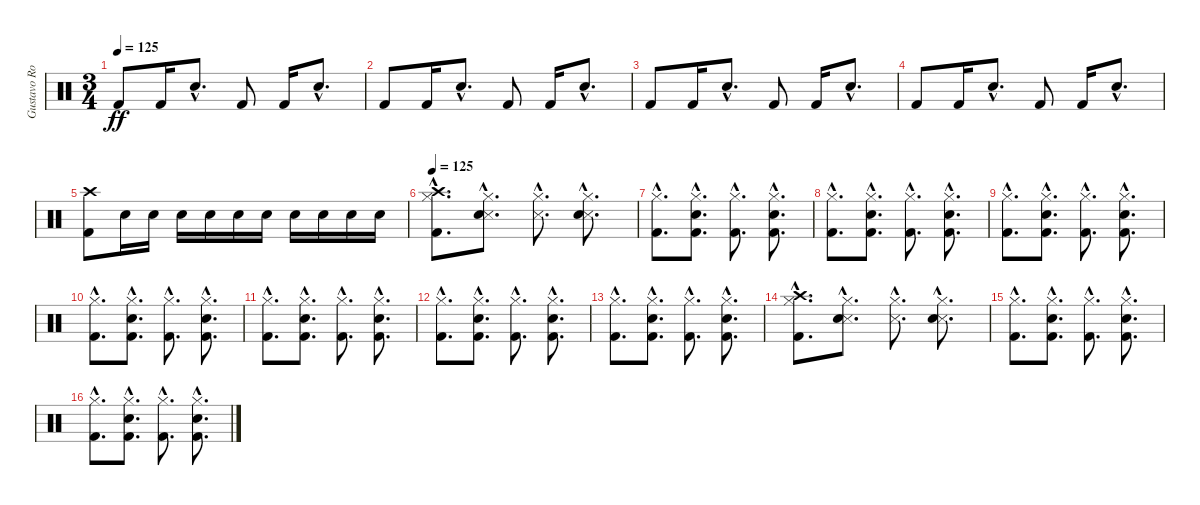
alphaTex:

\track ("Gustavo Rowek 2" "Gustavo Ro") {instrument percussion}
\staff {score}
\articulation defaults
\ts (3 4)
\tempo 125
\clef neutral
\ks c "Kick (hit) 2".8{dy ff} "Kick (hit) 2".16 "Snare (hit) 2"{hac}.8{d} "Kick (hit) 2".8 "Kick (hit) 2".16 "Snare (hit) 2"{hac}.8{d}
|
"Kick (hit) 2".8 "Kick (hit) 2".16 "Snare (hit) 2"{hac}.8{d} "Kick (hit) 2".8 "Kick (hit) 2".16 "Snare (hit) 2"{hac}.8{d} |
"Kick (hit) 2".8 "Kick (hit) 2".16 "Snare (hit) 2"{hac}.8{d} "Kick (hit) 2".8 "Kick (hit) 2".16 "Snare (hit) 2"{hac}.8{d} |
"Kick (hit) 2".8 "Kick (hit) 2".16 "Snare (hit) 2"{hac}.8{d} "Kick (hit) 2".8 "Kick (hit) 2".16 "Snare (hit) 2"{hac}.8{d} |
("Kick (hit) 2" "Crash high (hit)").8 "Electric Snare (hit)".16 "Electric Snare (hit)".16 "Electric Snare (hit)".16 "Electric Snare (hit)".16 "Electric Snare (hit)".16 "Electric Snare (hit)".16 "Electric Snare (hit)".16 "Electric Snare (hit)".16 "Electric Snare (hit)".16 "Electric Snare (hit)".16 |
\tempo 125
("Kick (hit) 2"{hac} "Hi-Hat (closed)"{hac} "Crash high (hit)"{hac}).8{d} ("Snare (side stick) 3"{hac} "Snare (hit) 2"{hac} "Hi-Hat (closed)"{hac}).8{d} ("Snare (side stick) 3"{hac} "Hi-Hat (closed)"{hac}).8{d} ("Snare (side stick) 3"{hac} "Snare (hit) 2"{hac} "Hi-Hat (closed)"{hac}).8{d} |
("Kick (hit) 2"{hac} "Hi-Hat (closed)"{hac}).8{d} ("Kick (hit) 2"{hac} "Snare (hit) 2"{hac} "Hi-Hat (closed)"{hac}).8{d} ("Kick (hit) 2"{hac} "Hi-Hat (closed)"{hac}).8{d} ("Kick (hit) 2"{hac} "Snare (hit) 2"{hac} "Hi-Hat (closed)"{hac}).8{d} |
("Kick (hit) 2"{hac} "Hi-Hat (closed)"{hac}).8{d} ("Kick (hit) 2"{hac} "Snare (hit) 2"{hac} "Hi-Hat (closed)"{hac}).8{d} ("Kick (hit) 2"{hac} "Hi-Hat (closed)"{hac}).8{d} ("Kick (hit) 2"{hac} "Snare (hit) 2"{hac} "Hi-Hat (closed)"{hac}).8{d} |
("Kick (hit) 2"{hac} "Hi-Hat (closed)"{hac}).8{d} ("Kick (hit) 2"{hac} "Snare (hit) 2"{hac} "Hi-Hat (closed)"{hac}).8{d} ("Kick (hit) 2"{hac} "Hi-Hat (closed)"{hac}).8{d} ("Kick (hit) 2"{hac} "Snare (hit) 2"{hac} "Hi-Hat (closed)"{hac}).8{d} |
("Kick (hit) 2"{hac} "Hi-Hat (closed)"{hac}).8{d} ("Kick (hit) 2"{hac} "Snare (hit) 2"{hac} "Hi-Hat (closed)"{hac}).8{d} ("Kick (hit) 2"{hac} "Hi-Hat (closed)"{hac}).8{d} ("Kick (hit) 2"{hac} "Snare (hit) 2"{hac} "Hi-Hat (closed)"{hac}).8{d} |
("Kick (hit) 2"{hac} "Hi-Hat (closed)"{hac}).8{d} ("Kick (hit) 2"{hac} "Snare (hit) 2"{hac} "Hi-Hat (closed)"{hac}).8{d} ("Kick (hit) 2"{hac} "Hi-Hat (closed)"{hac}).8{d} ("Kick (hit) 2"{hac} "Snare (hit) 2"{hac} "Hi-Hat (closed)"{hac}).8{d} |
("Kick (hit) 2"{hac} "Hi-Hat (closed)"{hac}).8{d} ("Kick (hit) 2"{hac} "Snare (hit) 2"{hac} "Hi-Hat (closed)"{hac}).8{d} ("Kick (hit) 2"{hac} "Hi-Hat (closed)"{hac}).8{d} ("Kick (hit) 2"{hac} "Snare (hit) 2"{hac} "Hi-Hat (closed)"{hac}).8{d} |
("Kick (hit) 2"{hac} "Hi-Hat (closed)"{hac}).8{d} ("Kick (hit) 2"{hac} "Snare (hit) 2"{hac} "Hi-Hat (closed)"{hac}).8{d} ("Kick (hit) 2"{hac} "Hi-Hat (closed)"{hac}).8{d} ("Kick (hit) 2"{hac} "Snare (hit) 2"{hac} "Hi-Hat (closed)"{hac}).8{d} |
("Kick (hit) 2"{hac} "Hi-Hat (closed)"{hac} "Crash high (hit)"{hac}).8{d} ("Snare (side stick) 3"{hac} "Snare (hit) 2"{hac} "Hi-Hat (closed)"{hac}).8{d} ("Snare (side stick) 3"{hac} "Hi-Hat (closed)"{hac}).8{d} ("Snare (side stick) 3"{hac} "Snare (hit) 2"{hac} "Hi-Hat (closed)"{hac}).8{d} |
("Kick (hit) 2"{hac} "Hi-Hat (closed)"{hac}).8{d} ("Kick (hit) 2"{hac} "Snare (hit) 2"{hac} "Hi-Hat (closed)"{hac}).8{d} ("Kick (hit) 2"{hac} "Hi-Hat (closed)"{hac}).8{d} ("Kick (hit) 2"{hac} "Snare (hit) 2"{hac} "Hi-Hat (closed)"{hac}).8{d} |
("Kick (hit) 2"{hac} "Hi-Hat (closed)"{hac}).8{d} ("Kick (hit) 2"{hac} "Snare (hit) 2"{hac} "Hi-Hat (closed)"{hac}).8{d} ("Kick (hit) 2"{hac} "Hi-Hat (closed)"{hac}).8{d} ("Kick (hit) 2"{hac} "Snare (hit) 2"{hac} "Hi-Hat (closed)"{hac}).8{d}
